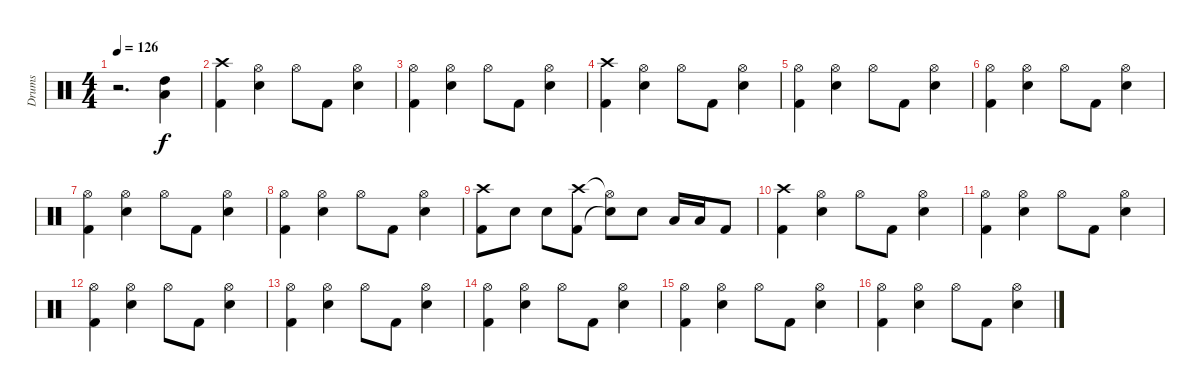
\track ("Drums" "Drums") {instrument percussion}
\staff {score}
\articulation defaults
\ts (4 4)
\tempo 126
\clef neutral
\ks c
r.2{d dy f} ("Low Tom (hit)" "High Tom (hit)").4 |
("Crash high (hit)" "Kick (hit) 2").4 ("Hi-Hat (open)" "Snare (hit) 2").4 "Hi-Hat (open)".8 "Kick (hit) 2".8 ("Hi-Hat (open)" "Snare (hit) 2").4 |
("Hi-Hat (open)" "Kick (hit) 2").4 ("Hi-Hat (open)" "Snare (hit) 2").4 "Hi-Hat (open)".8 "Kick (hit) 2".8 ("Hi-Hat (open)" "Snare (hit) 2").4 |
("Crash high (hit)" "Kick (hit) 2").4 ("Hi-Hat (open)" "Snare (hit) 2").4 "Hi-Hat (open)".8 "Kick (hit) 2".8 ("Hi-Hat (open)" "Snare (hit) 2").4 |
("Hi-Hat (open)" "Kick (hit) 2").4 ("Hi-Hat (open)" "Snare (hit) 2").4 "Hi-Hat (open)".8 "Kick (hit) 2".8 ("Hi-Hat (open)" "Snare (hit) 2").4 |
("Hi-Hat (open)" "Kick (hit) 2").4 ("Hi-Hat (open)" "Snare (hit) 2").4 "Hi-Hat (open)".8 "Kick (hit) 2".8 ("Hi-Hat (open)" "Snare (hit) 2").4 |
("Hi-Hat (open)" "Kick (hit) 2").4 ("Hi-Hat (open)" "Snare (hit) 2").4 "Hi-Hat (open)".8 "Kick (hit) 2".8 ("Hi-Hat (open)" "Snare (hit) 2").4 |
("Hi-Hat (open)" "Kick (hit) 2").4 ("Hi-Hat (open)" "Snare (hit) 2").4 "Hi-Hat (open)".8 "Kick (hit) 2".8 ("Hi-Hat (open)" "Snare (hit) 2").4 |
("Crash high (hit)" "Kick (hit) 2").8 "Snare (hit) 2".8 "Snare (hit) 2".8 ("Crash high (hit)" "Kick (hit) 2").8 ("Hi-Hat (open)"{t} "Snare (hit)"{t}).8 "Snare (hit) 2".8 "Low Tom (hit)".16 "Low Tom (hit)".16 "Kick (hit) 2".8 |
("Crash high (hit)" "Kick (hit) 2").4 ("Hi-Hat (open)" "Snare (hit) 2").4 "Hi-Hat (open)".8 "Kick (hit) 2".8 ("Hi-Hat (open)" "Snare (hit) 2").4 |
("Hi-Hat (open)" "Kick (hit) 2").4 ("Hi-Hat (open)" "Snare (hit) 2").4 "Hi-Hat (open)".8 "Kick (hit) 2".8 ("Hi-Hat (open)" "Snare (hit) 2").4 |
("Hi-Hat (open)" "Kick (hit) 2").4 ("Hi-Hat (open)" "Snare (hit) 2").4 "Hi-Hat (open)".8 "Kick (hit) 2".8 ("Hi-Hat (open)" "Snare (hit) 2").4 |
("Hi-Hat (open)" "Kick (hit) 2").4 ("Hi-Hat (open)" "Snare (hit) 2").4 "Hi-Hat (open)".8 "Kick (hit) 2".8 ("Hi-Hat (open)" "Snare (hit) 2").4 |
("Hi-Hat (open)" "Kick (hit) 2").4 ("Hi-Hat (open)" "Snare (hit) 2").4 "Hi-Hat (open)".8 "Kick (hit) 2".8 ("Hi-Hat (open)" "Snare (hit) 2").4 |
("Hi-Hat (open)" "Kick (hit) 2").4 ("Hi-Hat (open)" "Snare (hit) 2").4 "Hi-Hat (open)".8 "Kick (hit) 2".8 ("Hi-Hat (open)" "Snare (hit) 2").4 |
("Hi-Hat (open)" "Kick (hit) 2").4 ("Hi-Hat (open)" "Snare (hit) 2").4 "Hi-Hat (open)".8 "Kick (hit) 2".8 ("Hi-Hat (open)" "Snare (hit) 2").4
